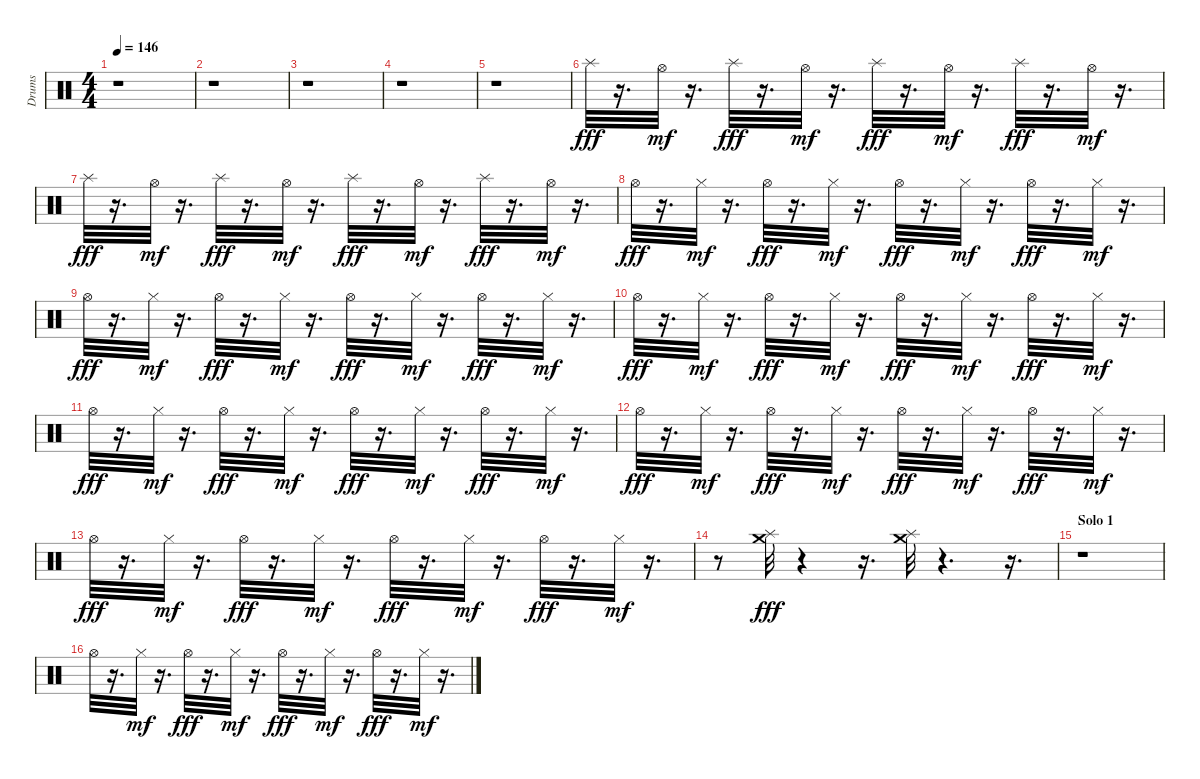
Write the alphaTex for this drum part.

\track ("Drums" "Drums") {instrument percussion}
\staff {score}
\articulation defaults
\ts (4 4)
\tempo 146
\clef neutral
\ks c
r.1{dy fff} |
r.1 |
r.1 |
r.1 |
r.1 |
"Splash (hit)".32 r.16{d} "Hi-Hat (open)".32{dy mf} r.16{d} "Splash (hit)".32{dy fff} r.16{d} "Hi-Hat (open)".32{dy mf} r.16{d} "Splash (hit)".32{dy fff} r.16{d} "Hi-Hat (open)".32{dy mf} r.16{d} "Splash (hit)".32{dy fff} r.16{d} "Hi-Hat (open)".32{dy mf} r.16{d} |
"Splash (hit)".32{dy fff} r.16{d} "Hi-Hat (open)".32{dy mf} r.16{d} "Splash (hit)".32{dy fff} r.16{d} "Hi-Hat (open)".32{dy mf} r.16{d} "Splash (hit)".32{dy fff} r.16{d} "Hi-Hat (open)".32{dy mf} r.16{d} "Splash (hit)".32{dy fff} r.16{d} "Hi-Hat (open)".32{dy mf} r.16{d} |
"Hi-Hat (open)".32{dy fff} r.16{d} "Hi-Hat (closed)".32{dy mf} r.16{d} "Hi-Hat (open)".32{dy fff} r.16{d} "Hi-Hat (closed)".32{dy mf} r.16{d} "Hi-Hat (open)".32{dy fff} r.16{d} "Hi-Hat (closed)".32{dy mf} r.16{d} "Hi-Hat (open)".32{dy fff} r.16{d} "Hi-Hat (closed)".32{dy mf} r.16{d} |
"Hi-Hat (open)".32{dy fff} r.16{d} "Hi-Hat (closed)".32{dy mf} r.16{d} "Hi-Hat (open)".32{dy fff} r.16{d} "Hi-Hat (closed)".32{dy mf} r.16{d} "Hi-Hat (open)".32{dy fff} r.16{d} "Hi-Hat (closed)".32{dy mf} r.16{d} "Hi-Hat (open)".32{dy fff} r.16{d} "Hi-Hat (closed)".32{dy mf} r.16{d} |
"Hi-Hat (open)".32{dy fff} r.16{d} "Hi-Hat (closed)".32{dy mf} r.16{d} "Hi-Hat (open)".32{dy fff} r.16{d} "Hi-Hat (closed)".32{dy mf} r.16{d} "Hi-Hat (open)".32{dy fff} r.16{d} "Hi-Hat (closed)".32{dy mf} r.16{d} "Hi-Hat (open)".32{dy fff} r.16{d} "Hi-Hat (closed)".32{dy mf} r.16{d} |
"Hi-Hat (open)".32{dy fff} r.16{d} "Hi-Hat (closed)".32{dy mf} r.16{d} "Hi-Hat (open)".32{dy fff} r.16{d} "Hi-Hat (closed)".32{dy mf} r.16{d} "Hi-Hat (open)".32{dy fff} r.16{d} "Hi-Hat (closed)".32{dy mf} r.16{d} "Hi-Hat (open)".32{dy fff} r.16{d} "Hi-Hat (closed)".32{dy mf} r.16{d} |
"Hi-Hat (open)".32{dy fff} r.16{d} "Hi-Hat (closed)".32{dy mf} r.16{d} "Hi-Hat (open)".32{dy fff} r.16{d} "Hi-Hat (closed)".32{dy mf} r.16{d} "Hi-Hat (open)".32{dy fff} r.16{d} "Hi-Hat (closed)".32{dy mf} r.16{d} "Hi-Hat (open)".32{dy fff} r.16{d} "Hi-Hat (closed)".32{dy mf} r.16{d} |
"Hi-Hat (open)".32{dy fff} r.16{d} "Hi-Hat (closed)".32{dy mf} r.16{d} "Hi-Hat (open)".32{dy fff} r.16{d} "Hi-Hat (closed)".32{dy mf} r.16{d} "Hi-Hat (open)".32{dy fff} r.16{d} "Hi-Hat (closed)".32{dy mf} r.16{d} "Hi-Hat (open)".32{dy fff} r.16{d} "Hi-Hat (closed)".32{dy mf} r.16{d} |
r.8 ("Splash (hit)" "Crash medium (hit)").32{dy fff} r.4 r.16{d} ("Splash (hit)" "Crash medium (hit)").32 r.4{d} r.16{d} |
\section ("" "Solo 1")
r.1 |
"Hi-Hat (open)".32 r.16{d} "Hi-Hat (closed)".32{dy mf} r.16{d} "Hi-Hat (open)".32{dy fff} r.16{d} "Hi-Hat (closed)".32{dy mf} r.16{d} "Hi-Hat (open)".32{dy fff} r.16{d} "Hi-Hat (closed)".32{dy mf} r.16{d} "Hi-Hat (open)".32{dy fff} r.16{d} "Hi-Hat (closed)".32{dy mf} r.16{d}
